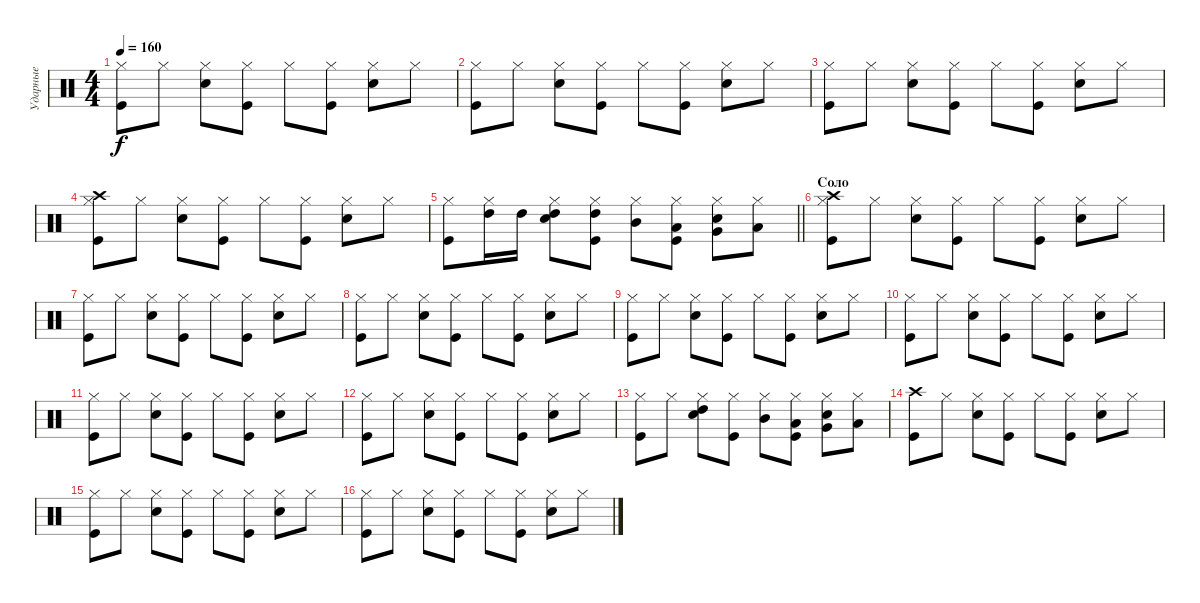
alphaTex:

\track ("Ударные" "Ударные") {instrument percussion}
\staff {score}
\articulation defaults
\ts (4 4)
\tempo 160
\clef neutral
\ks c
("Kick (hit)" "Hi-Hat (closed)").8{dy f} "Hi-Hat (closed)".8 ("Snare (hit) 2" "Hi-Hat (closed)").8 ("Kick (hit)" "Hi-Hat (closed)").8 "Hi-Hat (closed)".8 ("Kick (hit)" "Hi-Hat (closed)").8 ("Snare (hit) 2" "Hi-Hat (closed)").8 "Hi-Hat (closed)".8 |
("Kick (hit)" "Hi-Hat (closed)").8 "Hi-Hat (closed)".8 ("Snare (hit) 2" "Hi-Hat (closed)").8 ("Kick (hit)" "Hi-Hat (closed)").8 "Hi-Hat (closed)".8 ("Kick (hit)" "Hi-Hat (closed)").8 ("Snare (hit) 2" "Hi-Hat (closed)").8 "Hi-Hat (closed)".8 |
("Kick (hit)" "Hi-Hat (closed)").8 "Hi-Hat (closed)".8 ("Snare (hit) 2" "Hi-Hat (closed)").8 ("Kick (hit)" "Hi-Hat (closed)").8 "Hi-Hat (closed)".8 ("Kick (hit)" "Hi-Hat (closed)").8 ("Snare (hit) 2" "Hi-Hat (closed)").8 "Hi-Hat (closed)".8 |
("Kick (hit)" "Crash high (hit)" "Hi-Hat (closed)").8 "Hi-Hat (closed)".8 ("Snare (hit) 2" "Hi-Hat (closed)").8 ("Kick (hit)" "Hi-Hat (closed)").8 "Hi-Hat (closed)".8 ("Kick (hit)" "Hi-Hat (closed)").8 ("Snare (hit) 2" "Hi-Hat (closed)").8 "Hi-Hat (closed)".8 |
\barLineRight lightlight
("Kick (hit)" "Hi-Hat (closed)").8 ("High Tom (hit)" "Hi-Hat (closed)").16 "High Tom (hit)".16 ("Snare (hit) 2" "High Tom (hit)" "Hi-Hat (closed)").8 ("Kick (hit)" "High Tom (hit)" "Hi-Hat (closed)").8 ("Mid Tom (hit)" "Hi-Hat (closed)").8 ("Kick (hit)" "Low Tom (hit)" "Hi-Hat (closed)").8 ("Snare (hit) 2" "Very Low Tom (hit)" "Hi-Hat (closed)").8 ("Low Floor Tom (hit)" "Hi-Hat (closed)").8 |
\section ("" "Соло")
("Kick (hit)" "Crash high (hit)" "Hi-Hat (closed)").8 "Hi-Hat (closed)".8 ("Snare (hit) 2" "Hi-Hat (closed)").8 ("Kick (hit)" "Hi-Hat (closed)").8 "Hi-Hat (closed)".8 ("Kick (hit)" "Hi-Hat (closed)").8 ("Snare (hit) 2" "Hi-Hat (closed)").8 "Hi-Hat (closed)".8 |
("Kick (hit)" "Hi-Hat (closed)").8 "Hi-Hat (closed)".8 ("Snare (hit) 2" "Hi-Hat (closed)").8 ("Kick (hit)" "Hi-Hat (closed)").8 "Hi-Hat (closed)".8 ("Kick (hit)" "Hi-Hat (closed)").8 ("Snare (hit) 2" "Hi-Hat (closed)").8 "Hi-Hat (closed)".8 |
("Kick (hit)" "Hi-Hat (closed)").8 "Hi-Hat (closed)".8 ("Snare (hit) 2" "Hi-Hat (closed)").8 ("Kick (hit)" "Hi-Hat (closed)").8 "Hi-Hat (closed)".8 ("Kick (hit)" "Hi-Hat (closed)").8 ("Snare (hit) 2" "Hi-Hat (closed)").8 "Hi-Hat (closed)".8 |
("Kick (hit)" "Hi-Hat (closed)").8 "Hi-Hat (closed)".8 ("Snare (hit) 2" "Hi-Hat (closed)").8 ("Kick (hit)" "Hi-Hat (closed)").8 "Hi-Hat (closed)".8 ("Kick (hit)" "Hi-Hat (closed)").8 ("Snare (hit) 2" "Hi-Hat (closed)").8 "Hi-Hat (closed)".8 |
("Kick (hit)" "Hi-Hat (closed)").8 "Hi-Hat (closed)".8 ("Snare (hit) 2" "Hi-Hat (closed)").8 ("Kick (hit)" "Hi-Hat (closed)").8 "Hi-Hat (closed)".8 ("Kick (hit)" "Hi-Hat (closed)").8 ("Snare (hit) 2" "Hi-Hat (closed)").8 "Hi-Hat (closed)".8 |
("Kick (hit)" "Hi-Hat (closed)").8 "Hi-Hat (closed)".8 ("Snare (hit) 2" "Hi-Hat (closed)").8 ("Kick (hit)" "Hi-Hat (closed)").8 "Hi-Hat (closed)".8 ("Kick (hit)" "Hi-Hat (closed)").8 ("Snare (hit) 2" "Hi-Hat (closed)").8 "Hi-Hat (closed)".8 |
("Kick (hit)" "Hi-Hat (closed)").8 "Hi-Hat (closed)".8 ("Snare (hit) 2" "Hi-Hat (closed)").8 ("Kick (hit)" "Hi-Hat (closed)").8 "Hi-Hat (closed)".8 ("Kick (hit)" "Hi-Hat (closed)").8 ("Snare (hit) 2" "Hi-Hat (closed)").8 "Hi-Hat (closed)".8 |
("Kick (hit)" "Hi-Hat (closed)").8 "Hi-Hat (closed)".8 ("Snare (hit) 2" "High Tom (hit)" "Hi-Hat (closed)").8 ("Kick (hit)" "Hi-Hat (closed)").8 ("Mid Tom (hit)" "Hi-Hat (closed)").8 ("Kick (hit)" "Low Tom (hit)" "Hi-Hat (closed)").8 ("Snare (hit) 2" "Very Low Tom (hit)" "Hi-Hat (closed)").8 ("Low Floor Tom (hit)" "Hi-Hat (closed)").8 |
("Kick (hit)" "Crash high (hit)").8 "Hi-Hat (closed)".8 ("Snare (hit) 2" "Hi-Hat (closed)").8 ("Kick (hit)" "Hi-Hat (closed)").8 "Hi-Hat (closed)".8 ("Kick (hit)" "Hi-Hat (closed)").8 ("Snare (hit) 2" "Hi-Hat (closed)").8 "Hi-Hat (closed)".8 |
("Kick (hit)" "Hi-Hat (closed)").8 "Hi-Hat (closed)".8 ("Snare (hit) 2" "Hi-Hat (closed)").8 ("Kick (hit)" "Hi-Hat (closed)").8 "Hi-Hat (closed)".8 ("Kick (hit)" "Hi-Hat (closed)").8 ("Snare (hit) 2" "Hi-Hat (closed)").8 "Hi-Hat (closed)".8 |
("Kick (hit)" "Hi-Hat (closed)").8 "Hi-Hat (closed)".8 ("Snare (hit) 2" "Hi-Hat (closed)").8 ("Kick (hit)" "Hi-Hat (closed)").8 "Hi-Hat (closed)".8 ("Kick (hit)" "Hi-Hat (closed)").8 ("Snare (hit) 2" "Hi-Hat (closed)").8 "Hi-Hat (closed)".8
